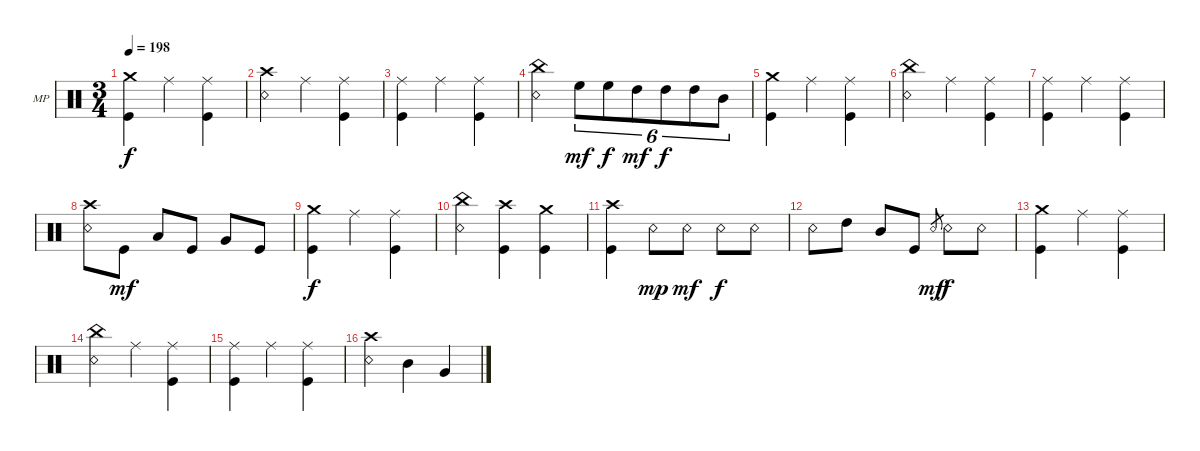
\defaultSystemsLayout 4
\bracketExtendMode groupsimilarinstruments
\firstSystemTrackNameOrientation horizontal
\otherSystemsTrackNameOrientation horizontal
\track ("Mike Portnoy" "MP") {instrument percussion}
\staff {score}
\articulation defaults
\ts (3 4)
\tempo 198
\clef neutral
\ks c
("Crash medium (hit)" "Kick (hit)").4{dy f} "Ride (middle)".4 ("Ride (middle)" "Kick (hit)").4 |
("Crash high (hit)" "Snare (rim shot)").4 "Ride (middle)".4 ("Ride (middle)" "Kick (hit)").4 |
("Ride (middle)" "Kick (hit)").4 "Ride (middle)".4 ("Ride (middle)" "Kick (hit)").4 |
("China (hit)" "Snare (rim shot)").4 "High Floor Tom (hit)".8{tu (6 4) dy mf} "High Floor Tom (hit)".8{tu (6 4) dy f} "High Tom (hit)".8{tu (6 4) dy mf} "High Tom (hit)".8{tu (6 4) dy f} "High Tom (hit)".8{tu (6 4)} "Mid Tom (hit)".8{tu (6 4)} |
("Crash medium (hit)" "Kick (hit)").4 "Ride (middle)".4 ("Ride (middle)" "Kick (hit)").4 |
("China (hit)" "Snare (rim shot)").4 "Ride (middle)".4 ("Ride (middle)" "Kick (hit)").4 |
("Ride (middle)" "Kick (hit)").4 "Ride (middle)".4 ("Ride (middle)" "Kick (hit)").4 |
("Crash high (hit)" "Snare (rim shot)").8 "Kick (hit)".8{dy mf} "Low Tom (hit)".8 "Kick (hit)".8 "Very Low Tom (hit)".8 "Kick (hit)".8 |
("Crash medium (hit)" "Kick (hit)").4{dy f} "Ride (middle)".4 ("Ride (middle)" "Kick (hit)").4 |
("China (hit)" "Snare (rim shot)").4 ("Crash high (hit)" "Kick (hit)").4 ("Crash medium (hit)" "Kick (hit)").4 |
("Crash high (hit)" "Kick (hit)").4 "Snare (rim shot)".8{dy mp} "Snare (rim shot)".8{dy mf} "Snare (rim shot)".8{dy f} "Snare (rim shot)".8 |
"Snare (rim shot)".8 "High Tom (hit)".8 "Mid Tom (hit)".8 "Kick (hit)".8 "Snare (rim shot)".8{gr dy mf} "Snare (rim shot)".8{dy f} "Snare (rim shot)".8 |
("Crash medium (hit)" "Kick (hit)").4 "Ride (middle)".4 ("Ride (middle)" "Kick (hit)").4 |
("China (hit)" "Snare (rim shot)").4 "Ride (middle)".4 ("Ride (middle)" "Kick (hit)").4 |
("Ride (middle)" "Kick (hit)").4 "Ride (middle)".4 ("Ride (middle)" "Kick (hit)").4 |
("Crash high (hit)" "Snare (rim shot)").4 "Mid Tom (hit)".4 "Very Low Tom (hit)".4
